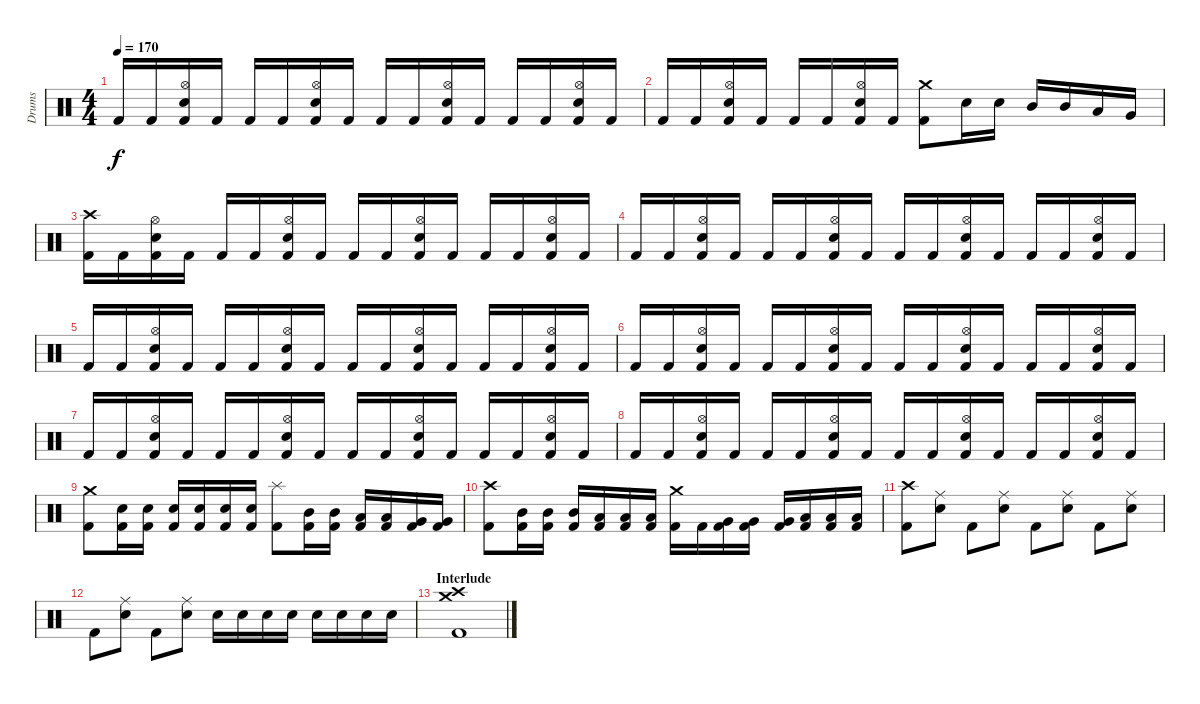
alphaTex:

\track ("Drums" "Drums") {instrument percussion}
\staff {score}
\articulation defaults
\ts (4 4)
\tempo 170
\clef neutral
\ks c "Kick (hit) 2".16{dy f} "Kick (hit) 2".16
("Hi-Hat (open)" "Snare (hit) 2" "Kick (hit) 2").16 "Kick (hit) 2".16 "Kick (hit) 2".16 "Kick (hit) 2".16 ("Hi-Hat (open)" "Snare (hit) 2" "Kick (hit) 2").16 "Kick (hit) 2".16 "Kick (hit) 2".16 "Kick (hit) 2".16 ("Hi-Hat (open)" "Snare (hit) 2" "Kick (hit) 2").16 "Kick (hit) 2".16 "Kick (hit) 2".16 "Kick (hit) 2".16 ("Hi-Hat (open)" "Snare (hit) 2" "Kick (hit) 2").16 "Kick (hit) 2".16 |
"Kick (hit) 2".16 "Kick (hit) 2".16 ("Hi-Hat (open)" "Snare (hit) 2" "Kick (hit) 2").16 "Kick (hit) 2".16 "Kick (hit) 2".16 "Kick (hit) 2".16 ("Hi-Hat (open)" "Snare (hit) 2" "Kick (hit) 2").16 "Kick (hit) 2".16 ("Crash medium (hit)" "Kick (hit) 2").8 "Snare (hit) 2".16 "Snare (hit) 2".16 "Mid Tom (hit)".16 "Mid Tom (hit)".16 "Low Tom (hit)".16 "Very Low Tom (hit)".16 |
("Crash high (hit)" "Kick (hit) 2").16 "Kick (hit) 2".16 ("Hi-Hat (open)" "Snare (hit) 2" "Kick (hit) 2").16 "Kick (hit) 2".16 "Kick (hit) 2".16 "Kick (hit) 2".16 ("Hi-Hat (open)" "Snare (hit) 2" "Kick (hit) 2").16 "Kick (hit) 2".16 "Kick (hit) 2".16 "Kick (hit) 2".16 ("Hi-Hat (open)" "Snare (hit) 2" "Kick (hit) 2").16 "Kick (hit) 2".16 "Kick (hit) 2".16 "Kick (hit) 2".16 ("Hi-Hat (open)" "Snare (hit) 2" "Kick (hit) 2").16 "Kick (hit) 2".16 |
"Kick (hit) 2".16 "Kick (hit) 2".16 ("Hi-Hat (open)" "Snare (hit) 2" "Kick (hit) 2").16 "Kick (hit) 2".16 "Kick (hit) 2".16 "Kick (hit) 2".16 ("Hi-Hat (open)" "Snare (hit) 2" "Kick (hit) 2").16 "Kick (hit) 2".16 "Kick (hit) 2".16 "Kick (hit) 2".16 ("Hi-Hat (open)" "Snare (hit) 2" "Kick (hit) 2").16 "Kick (hit) 2".16 "Kick (hit) 2".16 "Kick (hit) 2".16 ("Hi-Hat (open)" "Snare (hit) 2" "Kick (hit) 2").16 "Kick (hit) 2".16 |
"Kick (hit) 2".16 "Kick (hit) 2".16 ("Hi-Hat (open)" "Snare (hit) 2" "Kick (hit) 2").16 "Kick (hit) 2".16 "Kick (hit) 2".16 "Kick (hit) 2".16 ("Hi-Hat (open)" "Snare (hit) 2" "Kick (hit) 2").16 "Kick (hit) 2".16 "Kick (hit) 2".16 "Kick (hit) 2".16 ("Hi-Hat (open)" "Snare (hit) 2" "Kick (hit) 2").16 "Kick (hit) 2".16 "Kick (hit) 2".16 "Kick (hit) 2".16 ("Hi-Hat (open)" "Snare (hit) 2" "Kick (hit) 2").16 "Kick (hit) 2".16 |
"Kick (hit) 2".16 "Kick (hit) 2".16 ("Hi-Hat (open)" "Snare (hit) 2" "Kick (hit) 2").16 "Kick (hit) 2".16 "Kick (hit) 2".16 "Kick (hit) 2".16 ("Hi-Hat (open)" "Snare (hit) 2" "Kick (hit) 2").16 "Kick (hit) 2".16 "Kick (hit) 2".16 "Kick (hit) 2".16 ("Hi-Hat (open)" "Snare (hit) 2" "Kick (hit) 2").16 "Kick (hit) 2".16 "Kick (hit) 2".16 "Kick (hit) 2".16 ("Hi-Hat (open)" "Snare (hit) 2" "Kick (hit) 2").16 "Kick (hit) 2".16 |
"Kick (hit) 2".16 "Kick (hit) 2".16 ("Hi-Hat (open)" "Snare (hit) 2" "Kick (hit) 2").16 "Kick (hit) 2".16 "Kick (hit) 2".16 "Kick (hit) 2".16 ("Hi-Hat (open)" "Snare (hit) 2" "Kick (hit) 2").16 "Kick (hit) 2".16 "Kick (hit) 2".16 "Kick (hit) 2".16 ("Hi-Hat (open)" "Snare (hit) 2" "Kick (hit) 2").16 "Kick (hit) 2".16 "Kick (hit) 2".16 "Kick (hit) 2".16 ("Hi-Hat (open)" "Snare (hit) 2" "Kick (hit) 2").16 "Kick (hit) 2".16 |
"Kick (hit) 2".16 "Kick (hit) 2".16 ("Hi-Hat (open)" "Snare (hit) 2" "Kick (hit) 2").16 "Kick (hit) 2".16 "Kick (hit) 2".16 "Kick (hit) 2".16 ("Hi-Hat (open)" "Snare (hit) 2" "Kick (hit) 2").16 "Kick (hit) 2".16 "Kick (hit) 2".16 "Kick (hit) 2".16 ("Hi-Hat (open)" "Snare (hit) 2" "Kick (hit) 2").16 "Kick (hit) 2".16 "Kick (hit) 2".16 "Kick (hit) 2".16 ("Hi-Hat (open)" "Snare (hit) 2" "Kick (hit) 2").16 "Kick (hit) 2".16 |
("Crash medium (hit)" "Kick (hit) 2").8 ("Snare (hit) 2" "Kick (hit) 2").16 ("Snare (hit) 2" "Kick (hit) 2").16 ("Snare (hit) 2" "Kick (hit) 2").16 ("Snare (hit) 2" "Kick (hit) 2").16 ("Snare (hit) 2" "Kick (hit) 2").16 ("Snare (hit) 2" "Kick (hit) 2").16 ("Splash (hit)" "Kick (hit) 2").8 ("Mid Tom (hit)" "Kick (hit) 2").16 ("Mid Tom (hit)" "Kick (hit) 2").16 ("Low Tom (hit)" "Kick (hit) 2").16 ("Low Tom (hit)" "Kick (hit) 2").16 ("Very Low Tom (hit)" "Kick (hit) 2").16 ("Very Low Tom (hit)" "Kick (hit) 2").16 |
("Crash high (hit)" "Kick (hit) 2").8 ("Mid Tom (hit)" "Kick (hit) 2").16 ("Mid Tom (hit)" "Kick (hit) 2").16 ("Mid Tom (hit)" "Kick (hit) 2").16 ("Low Tom (hit)" "Kick (hit) 2").16 ("Low Tom (hit)" "Kick (hit) 2").16 ("Low Tom (hit)" "Kick (hit) 2").16 ("Crash medium (hit)" "Kick (hit) 2").16 "Kick (hit) 2".16 ("Very Low Tom (hit)" "Kick (hit) 2").16 ("Very Low Tom (hit)" "Kick (hit) 2").16 ("Very Low Tom (hit)" "Kick (hit) 2").16 ("Low Floor Tom (hit)" "Kick (hit) 2").16 ("Low Floor Tom (hit)" "Kick (hit) 2").16 ("Low Floor Tom (hit)" "Kick (hit) 2").16 |
("Crash high (hit)" "Kick (hit) 2").8 ("Ride (middle)" "Snare (hit) 2").8 "Kick (hit) 2".8 ("Ride (middle)" "Snare (hit) 2").8 "Kick (hit) 2".8 ("Ride (middle)" "Snare (hit) 2").8 "Kick (hit) 2".8 ("Ride (middle)" "Snare (hit) 2").8 |
"Kick (hit) 2".8 ("Ride (middle)" "Snare (hit) 2").8 "Kick (hit) 2".8 ("Ride (middle)" "Snare (hit) 2").8 "Snare (hit) 2".16 "Snare (hit) 2".16 "Snare (hit) 2".16 "Snare (hit) 2".16 "Snare (hit) 2".16 "Snare (hit) 2".16 "Snare (hit) 2".16 "Snare (hit) 2".16 |
\section ("" "Interlude")
("Crash high (hit)" "Crash medium (hit)" "Kick (hit) 2").1
